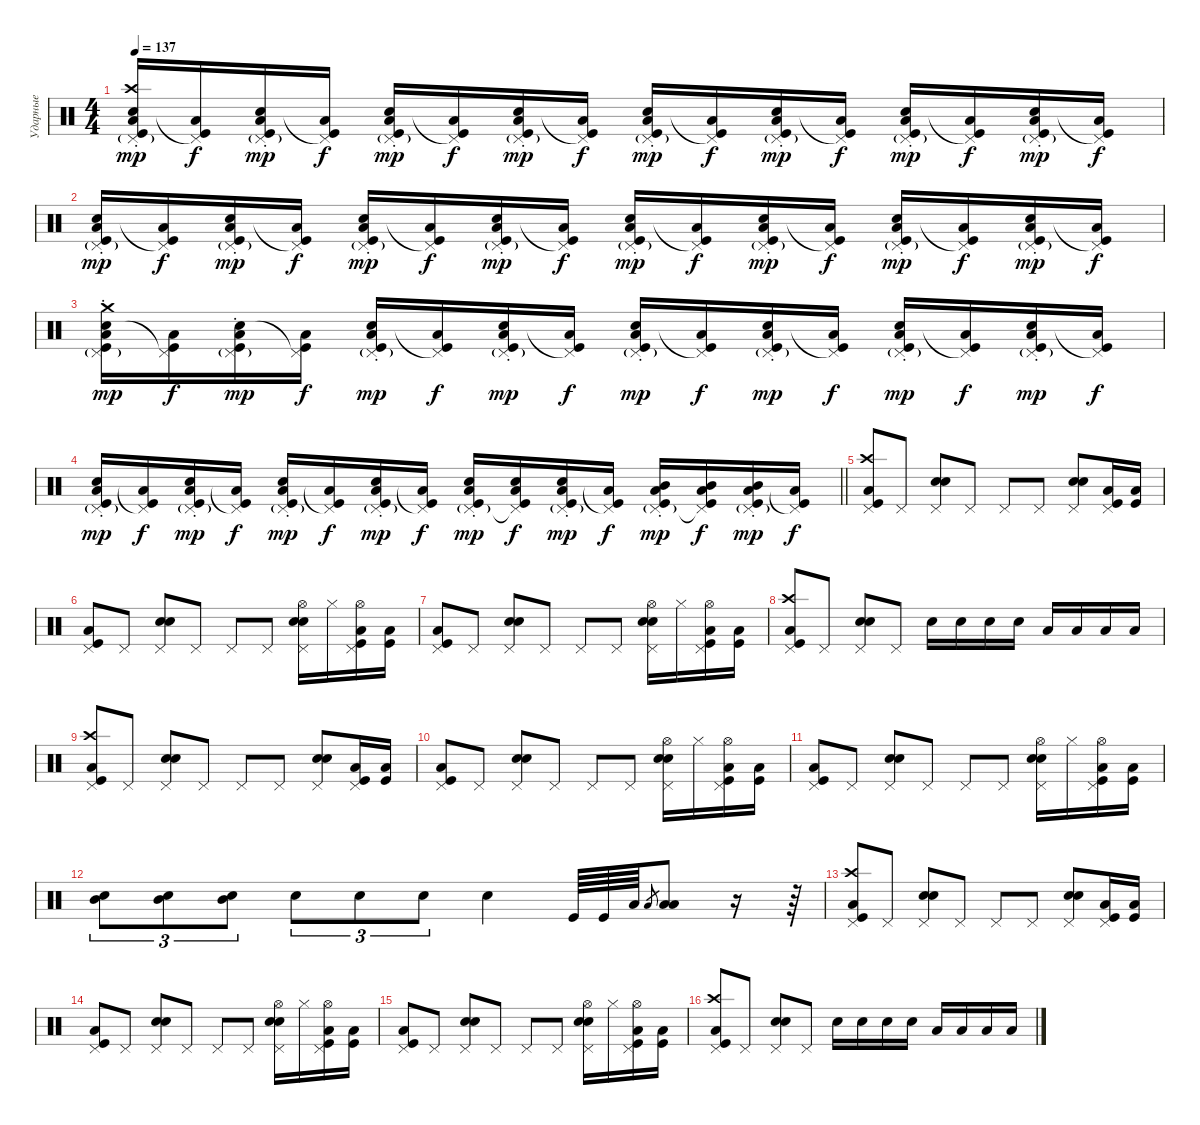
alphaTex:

\track ("Ударные" "Ударные") {instrument percussion}
\staff {score}
\articulation defaults
\ts (4 4)
\tempo 137
\clef neutral
\ks c
("Kick (hit)" "Low Tom (hit)" "Electric Snare (hit)" "Crash high (hit)" "Pedal Hi-Hat (hit)"{g st}).16{dy mp} ("Kick (hit)" "Low Tom (hit)" "Pedal Hi-Hat (hit)"{t}).16{dy f} ("Kick (hit)" "Low Tom (hit)" "Electric Snare (hit)" "Pedal Hi-Hat (hit)"{g st}).16{dy mp} ("Kick (hit)" "Low Tom (hit)" "Pedal Hi-Hat (hit)"{t}).16{dy f} ("Kick (hit)" "Low Tom (hit)" "Electric Snare (hit)" "Pedal Hi-Hat (hit)"{g st}).16{dy mp} ("Kick (hit)" "Low Tom (hit)" "Pedal Hi-Hat (hit)"{t}).16{dy f} ("Kick (hit)" "Low Tom (hit)" "Electric Snare (hit)" "Pedal Hi-Hat (hit)"{g st}).16{dy mp} ("Kick (hit)" "Low Tom (hit)" "Pedal Hi-Hat (hit)"{t}).16{dy f} ("Kick (hit)" "Low Tom (hit)" "Electric Snare (hit)" "Pedal Hi-Hat (hit)"{g st}).16{dy mp} ("Kick (hit)" "Low Tom (hit)" "Pedal Hi-Hat (hit)"{t}).16{dy f} ("Kick (hit)" "Low Tom (hit)" "Electric Snare (hit)" "Pedal Hi-Hat (hit)"{g st}).16{dy mp} ("Kick (hit)" "Low Tom (hit)" "Pedal Hi-Hat (hit)"{t}).16{dy f} ("Kick (hit)" "Low Tom (hit)" "Electric Snare (hit)" "Pedal Hi-Hat (hit)"{g st}).16{dy mp} ("Kick (hit)" "Low Tom (hit)" "Pedal Hi-Hat (hit)"{t}).16{dy f} ("Kick (hit)" "Low Tom (hit)" "Electric Snare (hit)" "Pedal Hi-Hat (hit)"{g st}).16{dy mp} ("Kick (hit)" "Low Tom (hit)" "Pedal Hi-Hat (hit)"{t}).16{dy f} |
("Kick (hit)" "Low Tom (hit)" "Electric Snare (hit)" "Pedal Hi-Hat (hit)"{g st}).16{dy mp} ("Kick (hit)" "Low Tom (hit)" "Pedal Hi-Hat (hit)"{t}).16{dy f} ("Kick (hit)" "Low Tom (hit)" "Electric Snare (hit)" "Pedal Hi-Hat (hit)"{g st}).16{dy mp} ("Kick (hit)" "Low Tom (hit)" "Pedal Hi-Hat (hit)"{t}).16{dy f} ("Kick (hit)" "Low Tom (hit)" "Electric Snare (hit)" "Pedal Hi-Hat (hit)"{g st}).16{dy mp} ("Kick (hit)" "Low Tom (hit)" "Pedal Hi-Hat (hit)"{t}).16{dy f} ("Kick (hit)" "Low Tom (hit)" "Electric Snare (hit)" "Pedal Hi-Hat (hit)"{g st}).16{dy mp} ("Kick (hit)" "Low Tom (hit)" "Pedal Hi-Hat (hit)"{t}).16{dy f} ("Kick (hit)" "Low Tom (hit)" "Electric Snare (hit)" "Pedal Hi-Hat (hit)"{g st}).16{dy mp} ("Kick (hit)" "Low Tom (hit)" "Pedal Hi-Hat (hit)"{t}).16{dy f} ("Kick (hit)" "Low Tom (hit)" "Electric Snare (hit)" "Pedal Hi-Hat (hit)"{g st}).16{dy mp} ("Kick (hit)" "Low Tom (hit)" "Pedal Hi-Hat (hit)"{t}).16{dy f} ("Kick (hit)" "Low Tom (hit)" "Electric Snare (hit)" "Pedal Hi-Hat (hit)"{g st}).16{dy mp} ("Kick (hit)" "Low Tom (hit)" "Pedal Hi-Hat (hit)"{t}).16{dy f} ("Kick (hit)" "Low Tom (hit)" "Electric Snare (hit)" "Pedal Hi-Hat (hit)"{g st}).16{dy mp} ("Kick (hit)" "Low Tom (hit)" "Pedal Hi-Hat (hit)"{t}).16{dy f} |
("Kick (hit)" "Low Tom (hit)" "Electric Snare (hit)" "Crash medium (hit)" "Pedal Hi-Hat (hit)"{g st}).16{dy mp} ("Kick (hit)" "Low Tom (hit)" "Pedal Hi-Hat (hit)"{t}).16{dy f} ("Kick (hit)" "Low Tom (hit)" "Electric Snare (hit)" "Pedal Hi-Hat (hit)"{g st}).16{dy mp} ("Kick (hit)" "Low Tom (hit)" "Pedal Hi-Hat (hit)"{t}).16{dy f} ("Kick (hit)" "Low Tom (hit)" "Electric Snare (hit)" "Pedal Hi-Hat (hit)"{g st}).16{dy mp} ("Kick (hit)" "Low Tom (hit)" "Pedal Hi-Hat (hit)"{t}).16{dy f} ("Kick (hit)" "Low Tom (hit)" "Electric Snare (hit)" "Pedal Hi-Hat (hit)"{g st}).16{dy mp} ("Kick (hit)" "Low Tom (hit)" "Pedal Hi-Hat (hit)"{t}).16{dy f} ("Kick (hit)" "Low Tom (hit)" "Electric Snare (hit)" "Pedal Hi-Hat (hit)"{g st}).16{dy mp} ("Kick (hit)" "Low Tom (hit)" "Pedal Hi-Hat (hit)"{t}).16{dy f} ("Kick (hit)" "Low Tom (hit)" "Electric Snare (hit)" "Pedal Hi-Hat (hit)"{g st}).16{dy mp} ("Kick (hit)" "Low Tom (hit)" "Pedal Hi-Hat (hit)"{t}).16{dy f} ("Kick (hit)" "Low Tom (hit)" "Electric Snare (hit)" "Pedal Hi-Hat (hit)"{g st}).16{dy mp} ("Kick (hit)" "Low Tom (hit)" "Pedal Hi-Hat (hit)"{t}).16{dy f} ("Kick (hit)" "Low Tom (hit)" "Electric Snare (hit)" "Pedal Hi-Hat (hit)"{g st}).16{dy mp} ("Kick (hit)" "Low Tom (hit)" "Pedal Hi-Hat (hit)"{t}).16{dy f} |
\barLineRight lightlight
("Kick (hit)" "Low Tom (hit)" "Electric Snare (hit)" "Pedal Hi-Hat (hit)"{g st}).16{dy mp} ("Kick (hit)" "Low Tom (hit)" "Pedal Hi-Hat (hit)"{t}).16{dy f} ("Kick (hit)" "Low Tom (hit)" "Electric Snare (hit)" "Pedal Hi-Hat (hit)"{g st}).16{dy mp} ("Kick (hit)" "Low Tom (hit)" "Pedal Hi-Hat (hit)"{t}).16{dy f} ("Kick (hit)" "Low Tom (hit)" "Electric Snare (hit)" "Pedal Hi-Hat (hit)"{g st}).16{dy mp} ("Kick (hit)" "Low Tom (hit)" "Pedal Hi-Hat (hit)"{t}).16{dy f} ("Kick (hit)" "Low Tom (hit)" "Electric Snare (hit)" "Pedal Hi-Hat (hit)"{g st}).16{dy mp} ("Kick (hit)" "Low Tom (hit)" "Pedal Hi-Hat (hit)"{t}).16{dy f} ("Kick (hit)" "Low Tom (hit)" "Electric Snare (hit)" "Pedal Hi-Hat (hit)"{g st}).16{dy mp} ("Kick (hit)" "Low Tom (hit)" "Electric Snare (hit)" "Pedal Hi-Hat (hit)"{t}).16{dy f} ("Kick (hit)" "Low Tom (hit)" "Electric Snare (hit)" "Pedal Hi-Hat (hit)"{g st}).16{dy mp} ("Kick (hit)" "Low Tom (hit)" "Pedal Hi-Hat (hit)"{t}).16{dy f} ("Kick (hit)" "Low Tom (hit)" "Mid Tom (hit)" "Pedal Hi-Hat (hit)"{g st}).16{dy mp} ("Kick (hit)" "Low Tom (hit)" "Mid Tom (hit)" "Pedal Hi-Hat (hit)"{t}).16{dy f} ("Kick (hit)" "Low Tom (hit)" "Mid Tom (hit)" "Pedal Hi-Hat (hit)"{g st}).16{dy mp} ("Kick (hit)" "Low Tom (hit)" "Pedal Hi-Hat (hit)"{t}).16{dy f} |
("Pedal Hi-Hat (hit)" "Crash high (hit)" "Kick (hit)" "Low Tom (hit)").8 "Pedal Hi-Hat (hit)".8 ("Pedal Hi-Hat (hit)" "Electric Snare (hit)" "Snare (hit) 2").8 "Pedal Hi-Hat (hit)".8 "Pedal Hi-Hat (hit)".8 "Pedal Hi-Hat (hit)".8 ("Pedal Hi-Hat (hit)" "Electric Snare (hit)" "Snare (hit) 2").8 ("Pedal Hi-Hat (hit)" "Kick (hit)" "Low Tom (hit)").16 ("Kick (hit)" "Low Tom (hit)").16 |
("Pedal Hi-Hat (hit)" "Kick (hit)" "Low Tom (hit)").8 "Pedal Hi-Hat (hit)".8 ("Pedal Hi-Hat (hit)" "Electric Snare (hit)" "Snare (hit) 2").8 "Pedal Hi-Hat (hit)".8 "Pedal Hi-Hat (hit)".8 "Pedal Hi-Hat (hit)".8 ("Pedal Hi-Hat (hit)" "Hi-Hat (open)" "Electric Snare (hit)" "Snare (hit) 2").16 "Hi-Hat (closed)".16 ("Pedal Hi-Hat (hit)" "Hi-Hat (open)" "Kick (hit)" "Low Tom (hit)").16 ("Kick (hit)" "Low Tom (hit)").16 |
("Pedal Hi-Hat (hit)" "Kick (hit)" "Low Tom (hit)").8 "Pedal Hi-Hat (hit)".8 ("Pedal Hi-Hat (hit)" "Electric Snare (hit)" "Snare (hit) 2").8 "Pedal Hi-Hat (hit)".8 "Pedal Hi-Hat (hit)".8 "Pedal Hi-Hat (hit)".8 ("Pedal Hi-Hat (hit)" "Hi-Hat (open)" "Electric Snare (hit)" "Snare (hit) 2").16 "Hi-Hat (closed)".16 ("Pedal Hi-Hat (hit)" "Hi-Hat (open)" "Kick (hit)" "Low Tom (hit)").16 ("Kick (hit)" "Low Tom (hit)").16 |
("Pedal Hi-Hat (hit)" "Crash high (hit)" "Kick (hit)" "Low Tom (hit)").8 "Pedal Hi-Hat (hit)".8 ("Pedal Hi-Hat (hit)" "Electric Snare (hit)" "Snare (hit) 2").8 "Pedal Hi-Hat (hit)".8 "Electric Snare (hit)".16 "Electric Snare (hit)".16 "Electric Snare (hit)".16 "Electric Snare (hit)".16 "Low Tom (hit)".16 "Low Tom (hit)".16 "Low Tom (hit)".16 "Low Tom (hit)".16 |
("Pedal Hi-Hat (hit)" "Crash high (hit)" "Kick (hit)" "Low Tom (hit)").8 "Pedal Hi-Hat (hit)".8 ("Pedal Hi-Hat (hit)" "Electric Snare (hit)" "Snare (hit) 2").8 "Pedal Hi-Hat (hit)".8 "Pedal Hi-Hat (hit)".8 "Pedal Hi-Hat (hit)".8 ("Pedal Hi-Hat (hit)" "Electric Snare (hit)" "Snare (hit) 2").8 ("Pedal Hi-Hat (hit)" "Kick (hit)" "Low Tom (hit)").16 ("Kick (hit)" "Low Tom (hit)").16 |
("Pedal Hi-Hat (hit)" "Kick (hit)" "Low Tom (hit)").8 "Pedal Hi-Hat (hit)".8 ("Pedal Hi-Hat (hit)" "Electric Snare (hit)" "Snare (hit) 2").8 "Pedal Hi-Hat (hit)".8 "Pedal Hi-Hat (hit)".8 "Pedal Hi-Hat (hit)".8 ("Pedal Hi-Hat (hit)" "Hi-Hat (open)" "Electric Snare (hit)" "Snare (hit) 2").16 "Hi-Hat (closed)".16 ("Pedal Hi-Hat (hit)" "Hi-Hat (open)" "Kick (hit)" "Low Tom (hit)").16 ("Kick (hit)" "Low Tom (hit)").16 |
("Pedal Hi-Hat (hit)" "Kick (hit)" "Low Tom (hit)").8 "Pedal Hi-Hat (hit)".8 ("Pedal Hi-Hat (hit)" "Electric Snare (hit)" "Snare (hit) 2").8 "Pedal Hi-Hat (hit)".8 "Pedal Hi-Hat (hit)".8 "Pedal Hi-Hat (hit)".8 ("Pedal Hi-Hat (hit)" "Hi-Hat (open)" "Electric Snare (hit)" "Snare (hit) 2").16 "Hi-Hat (closed)".16 ("Pedal Hi-Hat (hit)" "Hi-Hat (open)" "Kick (hit)" "Low Tom (hit)").16 ("Kick (hit)" "Low Tom (hit)").16 |
("Mid Tom (hit)" "Snare (hit) 2").8{tu (3 2)} ("Mid Tom (hit)" "Snare (hit) 2").8{tu (3 2)} ("Mid Tom (hit)" "Snare (hit) 2").8{tu (3 2)} "Electric Snare (hit)".8{tu (3 2)} "Electric Snare (hit)".8{tu (3 2)} "Electric Snare (hit)".8{tu (3 2)} "Electric Snare (hit)".4 "Kick (hit)".64 "Kick (hit)".64 "Low Floor Tom (hit)".64 "Low Tom (hit)".8{gr} ("Low Floor Tom (hit)" "Low Floor Tom (hit)").8 r.16 r.64 |
("Pedal Hi-Hat (hit)" "Crash high (hit)" "Kick (hit)" "Low Tom (hit)").8 "Pedal Hi-Hat (hit)".8 ("Pedal Hi-Hat (hit)" "Electric Snare (hit)" "Snare (hit) 2").8 "Pedal Hi-Hat (hit)".8 "Pedal Hi-Hat (hit)".8 "Pedal Hi-Hat (hit)".8 ("Pedal Hi-Hat (hit)" "Electric Snare (hit)" "Snare (hit) 2").8 ("Pedal Hi-Hat (hit)" "Kick (hit)" "Low Tom (hit)").16 ("Kick (hit)" "Low Tom (hit)").16 |
("Pedal Hi-Hat (hit)" "Kick (hit)" "Low Tom (hit)").8 "Pedal Hi-Hat (hit)".8 ("Pedal Hi-Hat (hit)" "Electric Snare (hit)" "Snare (hit) 2").8 "Pedal Hi-Hat (hit)".8 "Pedal Hi-Hat (hit)".8 "Pedal Hi-Hat (hit)".8 ("Pedal Hi-Hat (hit)" "Hi-Hat (open)" "Electric Snare (hit)" "Snare (hit) 2").16 "Hi-Hat (closed)".16 ("Pedal Hi-Hat (hit)" "Hi-Hat (open)" "Kick (hit)" "Low Tom (hit)").16 ("Kick (hit)" "Low Tom (hit)").16 |
("Pedal Hi-Hat (hit)" "Kick (hit)" "Low Tom (hit)").8 "Pedal Hi-Hat (hit)".8 ("Pedal Hi-Hat (hit)" "Electric Snare (hit)" "Snare (hit) 2").8 "Pedal Hi-Hat (hit)".8 "Pedal Hi-Hat (hit)".8 "Pedal Hi-Hat (hit)".8 ("Pedal Hi-Hat (hit)" "Hi-Hat (open)" "Electric Snare (hit)" "Snare (hit) 2").16 "Hi-Hat (closed)".16 ("Pedal Hi-Hat (hit)" "Hi-Hat (open)" "Kick (hit)" "Low Tom (hit)").16 ("Kick (hit)" "Low Tom (hit)").16 |
("Pedal Hi-Hat (hit)" "Crash high (hit)" "Kick (hit)" "Low Tom (hit)").8 "Pedal Hi-Hat (hit)".8 ("Pedal Hi-Hat (hit)" "Electric Snare (hit)" "Snare (hit) 2").8 "Pedal Hi-Hat (hit)".8 "Electric Snare (hit)".16 "Electric Snare (hit)".16 "Electric Snare (hit)".16 "Electric Snare (hit)".16 "Low Tom (hit)".16 "Low Tom (hit)".16 "Low Tom (hit)".16 "Low Tom (hit)".16
